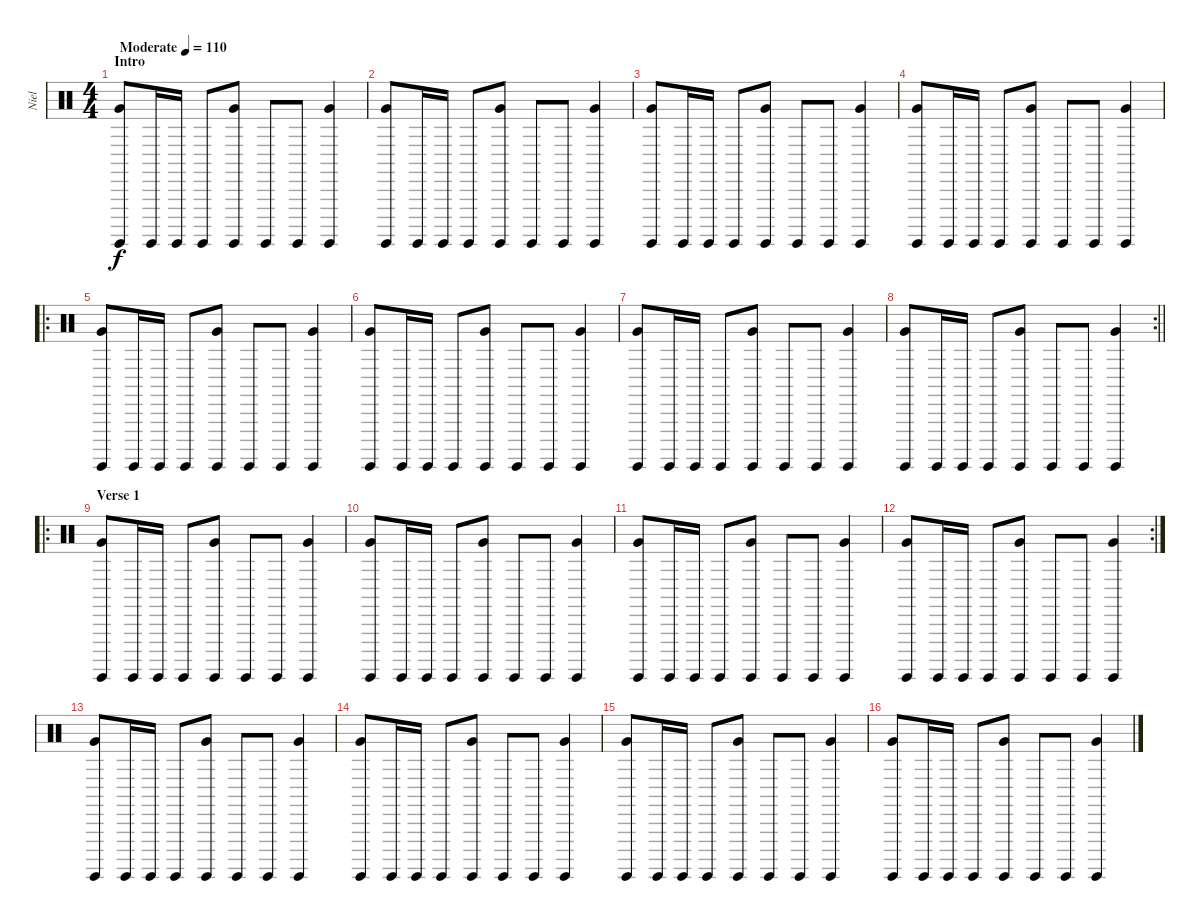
\track ("Niel" "Niel") {instrument percussion bank 1}
\staff {score}
\articulation defaults
\ts (4 4)
\section ("" "Intro")
\tempo (110 "Moderate")
\clef neutral
\ks c
("Very Low Tom (hit)" "Surdo (hit)").8{dy f} "Surdo (hit)".16 "Surdo (hit)".16 "Surdo (hit)".8 ("Very Low Tom (hit)" "Surdo (hit)").8 "Surdo (hit)".8 "Surdo (hit)".8 ("Very Low Tom (hit)" "Surdo (hit)").4 |
("Very Low Tom (hit)" "Surdo (hit)").8 "Surdo (hit)".16 "Surdo (hit)".16 "Surdo (hit)".8 ("Very Low Tom (hit)" "Surdo (hit)").8 "Surdo (hit)".8 "Surdo (hit)".8 ("Very Low Tom (hit)" "Surdo (hit)").4 |
("Very Low Tom (hit)" "Surdo (hit)").8 "Surdo (hit)".16 "Surdo (hit)".16 "Surdo (hit)".8 ("Very Low Tom (hit)" "Surdo (hit)").8 "Surdo (hit)".8 "Surdo (hit)".8 ("Very Low Tom (hit)" "Surdo (hit)").4 |
("Very Low Tom (hit)" "Surdo (hit)").8 "Surdo (hit)".16 "Surdo (hit)".16 "Surdo (hit)".8 ("Very Low Tom (hit)" "Surdo (hit)").8 "Surdo (hit)".8 "Surdo (hit)".8 ("Very Low Tom (hit)" "Surdo (hit)").4 |
\ro
("Very Low Tom (hit)" "Surdo (hit)").8 "Surdo (hit)".16 "Surdo (hit)".16 "Surdo (hit)".8 ("Very Low Tom (hit)" "Surdo (hit)").8 "Surdo (hit)".8 "Surdo (hit)".8 ("Very Low Tom (hit)" "Surdo (hit)").4 |
("Very Low Tom (hit)" "Surdo (hit)").8 "Surdo (hit)".16 "Surdo (hit)".16 "Surdo (hit)".8 ("Very Low Tom (hit)" "Surdo (hit)").8 "Surdo (hit)".8 "Surdo (hit)".8 ("Very Low Tom (hit)" "Surdo (hit)").4 |
("Very Low Tom (hit)" "Surdo (hit)").8 "Surdo (hit)".16 "Surdo (hit)".16 "Surdo (hit)".8 ("Very Low Tom (hit)" "Surdo (hit)").8 "Surdo (hit)".8 "Surdo (hit)".8 ("Very Low Tom (hit)" "Surdo (hit)").4 |
\rc 2
\barLineRight lightlight
("Very Low Tom (hit)" "Surdo (hit)").8 "Surdo (hit)".16 "Surdo (hit)".16 "Surdo (hit)".8 ("Very Low Tom (hit)" "Surdo (hit)").8 "Surdo (hit)".8 "Surdo (hit)".8 ("Very Low Tom (hit)" "Surdo (hit)").4 |
\ro
\section ("" "Verse 1")
("Very Low Tom (hit)" "Surdo (hit)").8 "Surdo (hit)".16 "Surdo (hit)".16 "Surdo (hit)".8 ("Very Low Tom (hit)" "Surdo (hit)").8 "Surdo (hit)".8 "Surdo (hit)".8 ("Very Low Tom (hit)" "Surdo (hit)").4 |
("Very Low Tom (hit)" "Surdo (hit)").8 "Surdo (hit)".16 "Surdo (hit)".16 "Surdo (hit)".8 ("Very Low Tom (hit)" "Surdo (hit)").8 "Surdo (hit)".8 "Surdo (hit)".8 ("Very Low Tom (hit)" "Surdo (hit)").4 |
("Very Low Tom (hit)" "Surdo (hit)").8 "Surdo (hit)".16 "Surdo (hit)".16 "Surdo (hit)".8 ("Very Low Tom (hit)" "Surdo (hit)").8 "Surdo (hit)".8 "Surdo (hit)".8 ("Very Low Tom (hit)" "Surdo (hit)").4 |
\rc 2
("Very Low Tom (hit)" "Surdo (hit)").8 "Surdo (hit)".16 "Surdo (hit)".16 "Surdo (hit)".8 ("Very Low Tom (hit)" "Surdo (hit)").8 "Surdo (hit)".8 "Surdo (hit)".8 ("Very Low Tom (hit)" "Surdo (hit)").4 |
("Very Low Tom (hit)" "Surdo (hit)").8 "Surdo (hit)".16 "Surdo (hit)".16 "Surdo (hit)".8 ("Very Low Tom (hit)" "Surdo (hit)").8 "Surdo (hit)".8 "Surdo (hit)".8 ("Very Low Tom (hit)" "Surdo (hit)").4 |
("Very Low Tom (hit)" "Surdo (hit)").8 "Surdo (hit)".16 "Surdo (hit)".16 "Surdo (hit)".8 ("Very Low Tom (hit)" "Surdo (hit)").8 "Surdo (hit)".8 "Surdo (hit)".8 ("Very Low Tom (hit)" "Surdo (hit)").4 |
("Very Low Tom (hit)" "Surdo (hit)").8 "Surdo (hit)".16 "Surdo (hit)".16 "Surdo (hit)".8 ("Very Low Tom (hit)" "Surdo (hit)").8 "Surdo (hit)".8 "Surdo (hit)".8 ("Very Low Tom (hit)" "Surdo (hit)").4 |
("Very Low Tom (hit)" "Surdo (hit)").8 "Surdo (hit)".16 "Surdo (hit)".16 "Surdo (hit)".8 ("Very Low Tom (hit)" "Surdo (hit)").8 "Surdo (hit)".8 "Surdo (hit)".8 ("Very Low Tom (hit)" "Surdo (hit)").4
